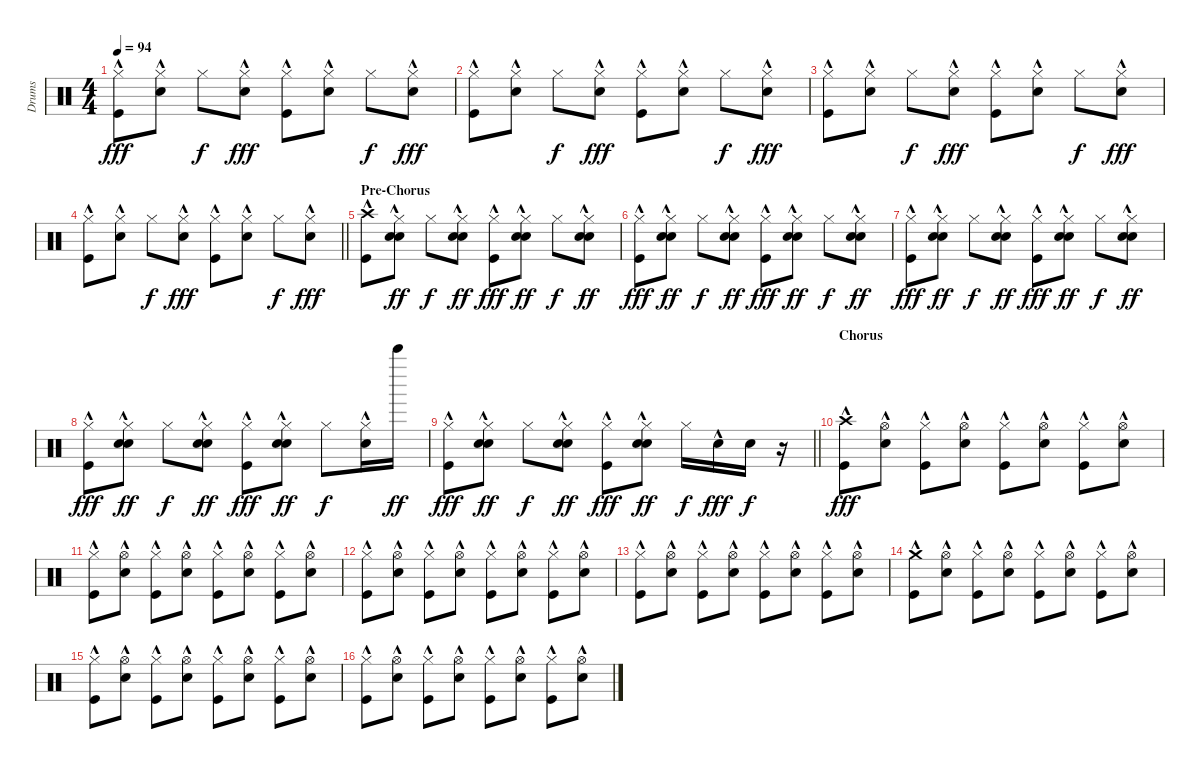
\track ("Drums" "Drums") {instrument percussion}
\staff {score}
\articulation defaults
\ts (4 4)
\tempo 94
\clef neutral
\ks c
("Hi-Hat (closed)" "Kick (hit)"{hac}).8{dy fff} ("Hi-Hat (closed)" "Snare (hit) 2"{hac}).8 "Hi-Hat (closed)".8{dy f} ("Hi-Hat (closed)" "Snare (hit) 2"{hac}).8{dy fff} ("Hi-Hat (closed)" "Kick (hit)"{hac}).8 ("Hi-Hat (closed)" "Snare (hit) 2"{hac}).8 "Hi-Hat (closed)".8{dy f} ("Hi-Hat (closed)" "Snare (hit) 2"{hac}).8{dy fff} |
("Hi-Hat (closed)" "Kick (hit)"{hac}).8 ("Hi-Hat (closed)" "Snare (hit) 2"{hac}).8 "Hi-Hat (closed)".8{dy f} ("Hi-Hat (closed)" "Snare (hit) 2"{hac}).8{dy fff} ("Hi-Hat (closed)" "Kick (hit)"{hac}).8 ("Hi-Hat (closed)" "Snare (hit) 2"{hac}).8 "Hi-Hat (closed)".8{dy f} ("Hi-Hat (closed)" "Snare (hit) 2"{hac}).8{dy fff} |
("Hi-Hat (closed)" "Kick (hit)"{hac}).8 ("Hi-Hat (closed)" "Snare (hit) 2"{hac}).8 "Hi-Hat (closed)".8{dy f} ("Hi-Hat (closed)" "Snare (hit) 2"{hac}).8{dy fff} ("Hi-Hat (closed)" "Kick (hit)"{hac}).8 ("Hi-Hat (closed)" "Snare (hit) 2"{hac}).8 "Hi-Hat (closed)".8{dy f} ("Hi-Hat (closed)" "Snare (hit) 2"{hac}).8{dy fff} |
\barLineRight lightlight
("Hi-Hat (closed)" "Kick (hit)"{hac}).8 ("Hi-Hat (closed)" "Snare (hit) 2"{hac}).8 "Hi-Hat (closed)".8{dy f} ("Hi-Hat (closed)" "Snare (hit) 2"{hac}).8{dy fff} ("Hi-Hat (closed)" "Kick (hit)"{hac}).8 ("Hi-Hat (closed)" "Snare (hit) 2"{hac}).8 "Hi-Hat (closed)".8{dy f} ("Hi-Hat (closed)" "Snare (hit) 2"{hac}).8{dy fff} |
\section ("" "Pre-Chorus")
("Crash high (hit)" "Kick (hit)"{hac}).8 ("Hi-Hat (closed)" "Snare (hit) 2"{hac} "Hand Clap (hit)").8{dy ff} "Hi-Hat (closed)".8{dy f} ("Hi-Hat (closed)" "Snare (hit) 2"{hac} "Hand Clap (hit)").8{dy ff} ("Hi-Hat (closed)" "Kick (hit)"{hac}).8{dy fff} ("Hi-Hat (closed)" "Snare (hit) 2"{hac} "Hand Clap (hit)").8{dy ff} "Hi-Hat (closed)".8{dy f} ("Hi-Hat (closed)" "Snare (hit) 2"{hac} "Hand Clap (hit)").8{dy ff} |
("Hi-Hat (closed)" "Kick (hit)"{hac}).8{dy fff} ("Hi-Hat (closed)" "Snare (hit) 2"{hac} "Hand Clap (hit)").8{dy ff} "Hi-Hat (closed)".8{dy f} ("Hi-Hat (closed)" "Snare (hit) 2"{hac} "Hand Clap (hit)").8{dy ff} ("Hi-Hat (closed)" "Kick (hit)"{hac}).8{dy fff} ("Hi-Hat (closed)" "Snare (hit) 2"{hac} "Hand Clap (hit)").8{dy ff} "Hi-Hat (closed)".8{dy f} ("Hi-Hat (closed)" "Snare (hit) 2"{hac} "Hand Clap (hit)").8{dy ff} |
("Hi-Hat (closed)" "Kick (hit)"{hac}).8{dy fff} ("Hi-Hat (closed)" "Snare (hit) 2"{hac} "Hand Clap (hit)").8{dy ff} "Hi-Hat (closed)".8{dy f} ("Hi-Hat (closed)" "Snare (hit) 2"{hac} "Hand Clap (hit)").8{dy ff} ("Hi-Hat (closed)" "Kick (hit)"{hac}).8{dy fff} ("Hi-Hat (closed)" "Snare (hit) 2"{hac} "Hand Clap (hit)").8{dy ff} "Hi-Hat (closed)".8{dy f} ("Hi-Hat (closed)" "Snare (hit) 2"{hac} "Hand Clap (hit)").8{dy ff} |
("Hi-Hat (closed)" "Kick (hit)"{hac}).8{dy fff} ("Hi-Hat (closed)" "Snare (hit) 2"{hac} "Hand Clap (hit)").8{dy ff} "Hi-Hat (closed)".8{dy f} ("Hi-Hat (closed)" "Snare (hit) 2"{hac} "Hand Clap (hit)").8{dy ff} ("Hi-Hat (closed)" "Kick (hit)"{hac}).8{dy fff} ("Hi-Hat (closed)" "Snare (hit) 2"{hac} "Hand Clap (hit)").8{dy ff} "Hi-Hat (closed)".8{dy f} ("Hi-Hat (closed)" "Snare (hit) 2"{hac}).16 "Bell Tree (hit)".16{dy ff} |
\barLineRight lightlight
("Hi-Hat (closed)" "Kick (hit)"{hac}).8{dy fff} ("Hi-Hat (closed)" "Snare (hit) 2"{hac} "Hand Clap (hit)").8{dy ff} "Hi-Hat (closed)".8{dy f} ("Hi-Hat (closed)" "Snare (hit) 2"{hac} "Hand Clap (hit)").8{dy ff} ("Hi-Hat (closed)" "Kick (hit)"{hac}).8{dy fff} ("Hi-Hat (closed)" "Snare (hit) 2"{hac} "Hand Clap (hit)").8{dy ff} "Hi-Hat (closed)".16{dy f} "Snare (hit) 2"{hac}.16{dy fff} "Snare (hit) 2".16{dy f} r.16 |
\section ("" "Chorus")
("Crash high (hit)" "Kick (hit)"{hac}).8{dy fff} ("Hi-Hat (open)" "Snare (hit) 2"{hac}).8 ("Hi-Hat (closed)" "Kick (hit)"{hac}).8 ("Hi-Hat (open)" "Snare (hit) 2"{hac}).8 ("Hi-Hat (closed)" "Kick (hit)"{hac}).8 ("Hi-Hat (open)" "Snare (hit) 2"{hac}).8 ("Hi-Hat (closed)" "Kick (hit)"{hac}).8 ("Hi-Hat (open)" "Snare (hit) 2"{hac}).8 |
("Hi-Hat (closed)" "Kick (hit)"{hac}).8 ("Hi-Hat (open)" "Snare (hit) 2"{hac}).8 ("Hi-Hat (closed)" "Kick (hit)"{hac}).8 ("Hi-Hat (open)" "Snare (hit) 2"{hac}).8 ("Hi-Hat (closed)" "Kick (hit)"{hac}).8 ("Hi-Hat (open)" "Snare (hit) 2"{hac}).8 ("Hi-Hat (closed)" "Kick (hit)"{hac}).8 ("Hi-Hat (open)" "Snare (hit) 2"{hac}).8 |
("Hi-Hat (closed)" "Kick (hit)"{hac}).8 ("Hi-Hat (open)" "Snare (hit) 2"{hac}).8 ("Hi-Hat (closed)" "Kick (hit)"{hac}).8 ("Hi-Hat (open)" "Snare (hit) 2"{hac}).8 ("Hi-Hat (closed)" "Kick (hit)"{hac}).8 ("Hi-Hat (open)" "Snare (hit) 2"{hac}).8 ("Hi-Hat (closed)" "Kick (hit)"{hac}).8 ("Hi-Hat (open)" "Snare (hit) 2"{hac}).8 |
("Hi-Hat (closed)" "Kick (hit)"{hac}).8 ("Hi-Hat (open)" "Snare (hit) 2"{hac}).8 ("Hi-Hat (closed)" "Kick (hit)"{hac}).8 ("Hi-Hat (open)" "Snare (hit) 2"{hac}).8 ("Hi-Hat (closed)" "Kick (hit)"{hac}).8 ("Hi-Hat (open)" "Snare (hit) 2"{hac}).8 ("Hi-Hat (closed)" "Kick (hit)"{hac}).8 ("Hi-Hat (open)" "Snare (hit) 2"{hac}).8 |
("Crash medium (hit)" "Kick (hit)"{hac}).8 ("Hi-Hat (open)" "Snare (hit) 2"{hac}).8 ("Hi-Hat (closed)" "Kick (hit)"{hac}).8 ("Hi-Hat (open)" "Snare (hit) 2"{hac}).8 ("Hi-Hat (closed)" "Kick (hit)"{hac}).8 ("Hi-Hat (open)" "Snare (hit) 2"{hac}).8 ("Hi-Hat (closed)" "Kick (hit)"{hac}).8 ("Hi-Hat (open)" "Snare (hit) 2"{hac}).8 |
("Hi-Hat (closed)" "Kick (hit)"{hac}).8 ("Hi-Hat (open)" "Snare (hit) 2"{hac}).8 ("Hi-Hat (closed)" "Kick (hit)"{hac}).8 ("Hi-Hat (open)" "Snare (hit) 2"{hac}).8 ("Hi-Hat (closed)" "Kick (hit)"{hac}).8 ("Hi-Hat (open)" "Snare (hit) 2"{hac}).8 ("Hi-Hat (closed)" "Kick (hit)"{hac}).8 ("Hi-Hat (open)" "Snare (hit) 2"{hac}).8 |
("Hi-Hat (closed)" "Kick (hit)"{hac}).8 ("Hi-Hat (open)" "Snare (hit) 2"{hac}).8 ("Hi-Hat (closed)" "Kick (hit)"{hac}).8 ("Hi-Hat (open)" "Snare (hit) 2"{hac}).8 ("Hi-Hat (closed)" "Kick (hit)"{hac}).8 ("Hi-Hat (open)" "Snare (hit) 2"{hac}).8 ("Hi-Hat (closed)" "Kick (hit)"{hac}).8 ("Hi-Hat (open)" "Snare (hit) 2"{hac}).8
